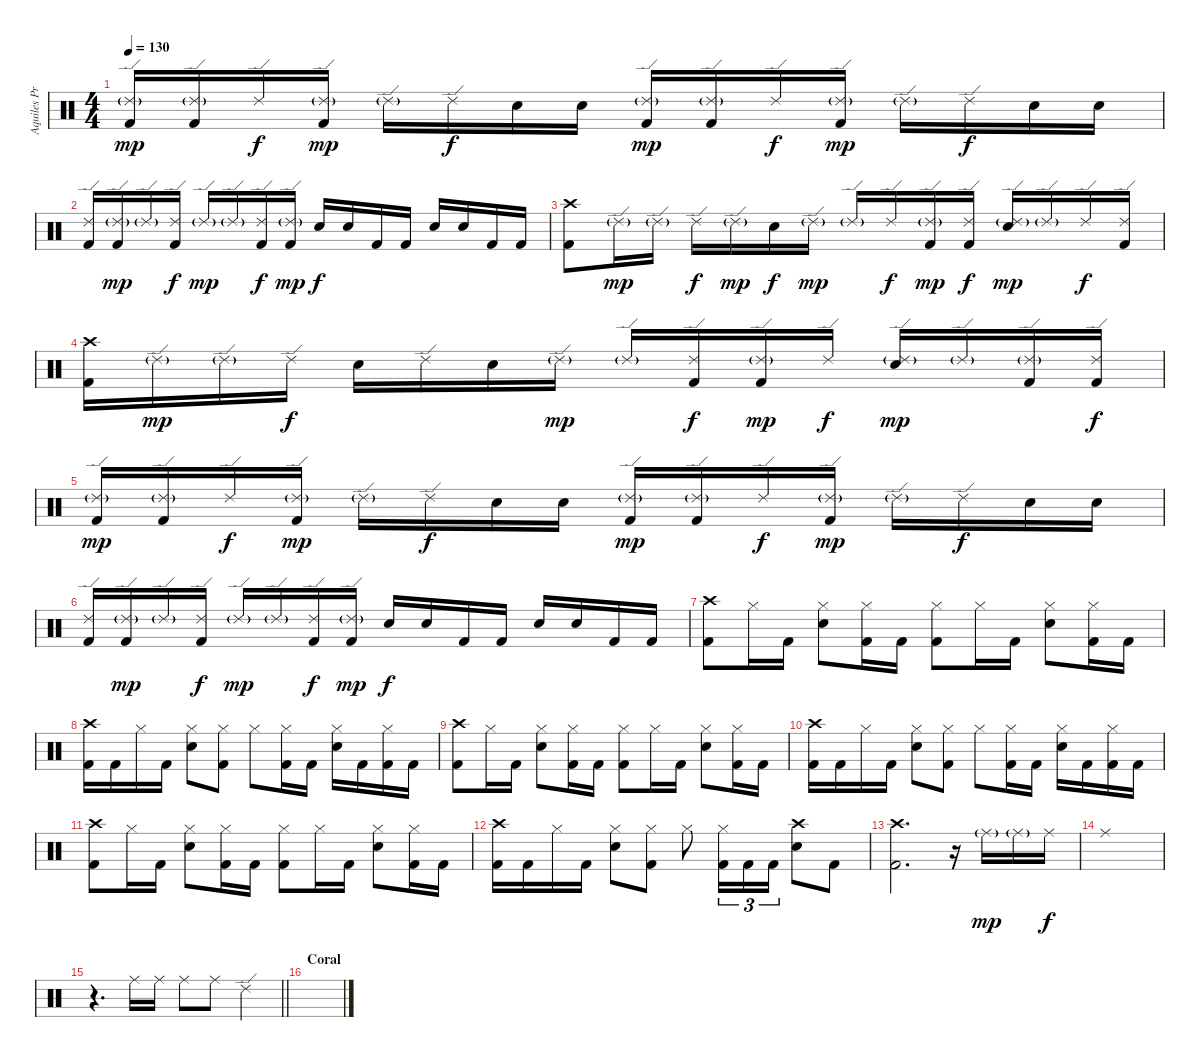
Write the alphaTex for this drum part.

\track ("Aquiles Priester" "Aquiles Pr") {instrument percussion}
\staff {score}
\articulation defaults
\ts (4 4)
\tempo 130
\clef neutral
\ks c
("Ride (edge) 2"{g} "Kick (hit) 2").16{dy mp} ("Ride (edge) 2"{g} "Kick (hit) 2").16 "Ride (edge) 2".16{dy f} ("Ride (edge) 2"{g} "Kick (hit) 2").16{dy mp} "Ride (edge) 2"{g}.16 "Ride (edge) 2".16{dy f} "Electric Snare (hit)".16 "Electric Snare (hit)".16 ("Ride (edge) 2"{g} "Kick (hit) 2").16{dy mp} ("Ride (edge) 2"{g} "Kick (hit) 2").16 "Ride (edge) 2".16{dy f} ("Ride (edge) 2"{g} "Kick (hit) 2").16{dy mp} "Ride (edge) 2"{g}.16 "Ride (edge) 2".16{dy f} "Electric Snare (hit)".16 "Electric Snare (hit)".16 |
("Ride (edge) 2" "Kick (hit) 2").16 ("Ride (edge) 2"{g} "Kick (hit) 2").16{dy mp} "Ride (edge) 2"{g}.16 ("Ride (edge) 2" "Kick (hit) 2").16{dy f} "Ride (edge) 2"{g}.16{dy mp} "Ride (edge) 2"{g}.16 ("Ride (edge) 2" "Kick (hit) 2").16{dy f} ("Ride (edge) 2"{g} "Kick (hit) 2").16{dy mp} "Electric Snare (hit)".16{dy f} "Electric Snare (hit)".16 "Kick (hit) 2".16 "Kick (hit) 2".16 "Electric Snare (hit)".16 "Electric Snare (hit)".16 "Kick (hit) 2".16 "Kick (hit) 2".16 |
("Crash high (hit)" "Kick (hit) 2").8 "Ride (edge) 2"{g}.16{dy mp} "Ride (edge) 2"{g}.16 "Ride (edge) 2".16{dy f} "Ride (edge) 2"{g}.16{dy mp} "Electric Snare (hit)".16{dy f} "Ride (edge) 2"{g}.16{dy mp} "Ride (edge) 2"{g}.16 "Ride (edge) 2".16{dy f} ("Ride (edge) 2"{g} "Kick (hit) 2").16{dy mp} ("Ride (edge) 2" "Kick (hit) 2").16{dy f} ("Ride (edge) 2"{g} "Electric Snare (hit)").16{dy mp} "Ride (edge) 2"{g}.16 "Ride (edge) 2".16{dy f} ("Ride (edge) 2" "Kick (hit) 2").16 |
("Crash high (hit)" "Kick (hit) 2").16 "Ride (edge) 2"{g}.16{dy mp} "Ride (edge) 2"{g}.16 "Ride (edge) 2".16{dy f} "Electric Snare (hit)".16 "Ride (edge) 2".16 "Electric Snare (hit)".16 "Ride (edge) 2"{g}.16{dy mp} "Ride (edge) 2"{g}.16 ("Ride (edge) 2" "Kick (hit) 2").16{dy f} ("Ride (edge) 2"{g} "Kick (hit) 2").16{dy mp} "Ride (edge) 2".16{dy f} ("Ride (edge) 2"{g} "Electric Snare (hit)").16{dy mp} "Ride (edge) 2"{g}.16 ("Ride (edge) 2"{g} "Kick (hit) 2").16 ("Ride (edge) 2" "Kick (hit) 2").16{dy f} |
("Ride (edge) 2"{g} "Kick (hit) 2").16{dy mp} ("Ride (edge) 2"{g} "Kick (hit) 2").16 "Ride (edge) 2".16{dy f} ("Ride (edge) 2"{g} "Kick (hit) 2").16{dy mp} "Ride (edge) 2"{g}.16 "Ride (edge) 2".16{dy f} "Electric Snare (hit)".16 "Electric Snare (hit)".16 ("Ride (edge) 2"{g} "Kick (hit) 2").16{dy mp} ("Ride (edge) 2"{g} "Kick (hit) 2").16 "Ride (edge) 2".16{dy f} ("Ride (edge) 2"{g} "Kick (hit) 2").16{dy mp} "Ride (edge) 2"{g}.16 "Ride (edge) 2".16{dy f} "Electric Snare (hit)".16 "Electric Snare (hit)".16 |
("Ride (edge) 2" "Kick (hit) 2").16 ("Ride (edge) 2"{g} "Kick (hit) 2").16{dy mp} "Ride (edge) 2"{g}.16 ("Ride (edge) 2" "Kick (hit) 2").16{dy f} "Ride (edge) 2"{g}.16{dy mp} "Ride (edge) 2"{g}.16 ("Ride (edge) 2" "Kick (hit) 2").16{dy f} ("Ride (edge) 2"{g} "Kick (hit) 2").16{dy mp} "Electric Snare (hit)".16{dy f} "Electric Snare (hit)".16 "Kick (hit) 2".16 "Kick (hit) 2".16 "Electric Snare (hit)".16 "Electric Snare (hit)".16 "Kick (hit) 2".16 "Kick (hit) 2".16 |
("Crash high (hit)" "Kick (hit) 2").8 "Hi-Hat (closed)".16 "Kick (hit) 2".16 ("Hi-Hat (closed)" "Electric Snare (hit)").8 ("Hi-Hat (closed)" "Kick (hit) 2").16 "Kick (hit) 2".16 ("Hi-Hat (closed)" "Kick (hit) 2").8 "Hi-Hat (closed)".16 "Kick (hit) 2".16 ("Hi-Hat (closed)" "Electric Snare (hit)").8 ("Hi-Hat (closed)" "Kick (hit) 2").16 "Kick (hit) 2".16 |
("Crash high (hit)" "Kick (hit) 2").16 "Kick (hit) 2".16 "Hi-Hat (closed)".16 "Kick (hit) 2".16 ("Hi-Hat (closed)" "Electric Snare (hit)").8 ("Hi-Hat (closed)" "Kick (hit) 2").8 "Hi-Hat (closed)".8 ("Hi-Hat (closed)" "Kick (hit) 2").16 "Kick (hit) 2".16 ("Hi-Hat (closed)" "Electric Snare (hit)").16 "Kick (hit) 2".16 ("Hi-Hat (closed)" "Kick (hit) 2").16 "Kick (hit) 2".16 |
("Crash high (hit)" "Kick (hit) 2").8 "Hi-Hat (closed)".16 "Kick (hit) 2".16 ("Hi-Hat (closed)" "Electric Snare (hit)").8 ("Hi-Hat (closed)" "Kick (hit) 2").16 "Kick (hit) 2".16 ("Hi-Hat (closed)" "Kick (hit) 2").8 "Hi-Hat (closed)".16 "Kick (hit) 2".16 ("Hi-Hat (closed)" "Electric Snare (hit)").8 ("Hi-Hat (closed)" "Kick (hit) 2").16 "Kick (hit) 2".16 |
("Crash high (hit)" "Kick (hit) 2").16 "Kick (hit) 2".16 "Hi-Hat (closed)".16 "Kick (hit) 2".16 ("Hi-Hat (closed)" "Electric Snare (hit)").8 ("Hi-Hat (closed)" "Kick (hit) 2").8 "Hi-Hat (closed)".8 ("Hi-Hat (closed)" "Kick (hit) 2").16 "Kick (hit) 2".16 ("Hi-Hat (closed)" "Electric Snare (hit)").16 "Kick (hit) 2".16 ("Hi-Hat (closed)" "Kick (hit) 2").16 "Kick (hit) 2".16 |
("Crash high (hit)" "Kick (hit) 2").8 "Hi-Hat (closed)".16 "Kick (hit) 2".16 ("Hi-Hat (closed)" "Electric Snare (hit)").8 ("Hi-Hat (closed)" "Kick (hit) 2").16 "Kick (hit) 2".16 ("Hi-Hat (closed)" "Kick (hit) 2").8 "Hi-Hat (closed)".16 "Kick (hit) 2".16 ("Hi-Hat (closed)" "Electric Snare (hit)").8 ("Hi-Hat (closed)" "Kick (hit) 2").16 "Kick (hit) 2".16 |
("Crash high (hit)" "Kick (hit) 2").16 "Kick (hit) 2".16 "Hi-Hat (closed)".16 "Kick (hit) 2".16 ("Hi-Hat (closed)" "Electric Snare (hit)").8 ("Hi-Hat (closed)" "Kick (hit) 2").8 "Hi-Hat (closed)".8 ("Hi-Hat (closed)" "Kick (hit) 2").16{tu (3 2)} "Kick (hit) 2".16{tu (3 2)} "Kick (hit) 2".16{tu (3 2)} ("Crash high (hit)" "Electric Snare (hit)").8 "Kick (hit) 2".8 |
("Crash high (hit)" "Kick (hit) 2").2{d} r.16 "Ride (middle)"{g}.16{dy mp} "Ride (middle)"{g}.16 "Ride (middle)".16{dy f} |
"Ride (middle)".1 |
\barLineRight lightlight
r.4{d} "Ride (middle)".16 "Ride (middle)".16 "Ride (middle)".8 "Ride (middle)".8 "Ride (edge) 2".4 |
\section ("" "Coral")
